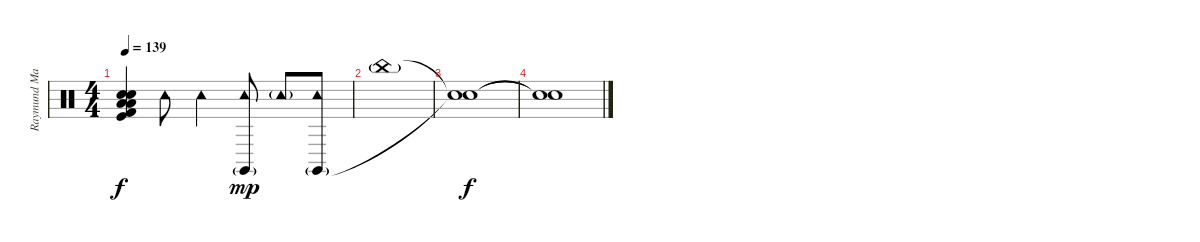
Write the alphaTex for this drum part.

\track ("Raymund Marasigan(Drums)" "Raymund Ma") {instrument percussion}
\staff {score}
\articulation defaults
\ts (4 4)
\tempo 139
\clef neutral
\ks c
("Electric Snare (hit)" "Snare (hit) 2" "Low Tom (hit)" "Low Tom (hit)" "Kick (hit) 2" "Kick (hit)").4{dy f} "Tambourine (hit)".8 "Tambourine (hit)".4 ("Tambourine (hit)" "Claves (hit)"{g}).8{dy mp} "Tambourine (hit)"{g}.8 ("Tambourine (hit)" "Claves (hit)"{g}).8 |
"China (hit)"{g}.1 |
("Snare (hit)"{t} "Snare (hit)"{t}).1{dy f} |
("Snare (hit)"{t} "Snare (hit)"{t}).1
